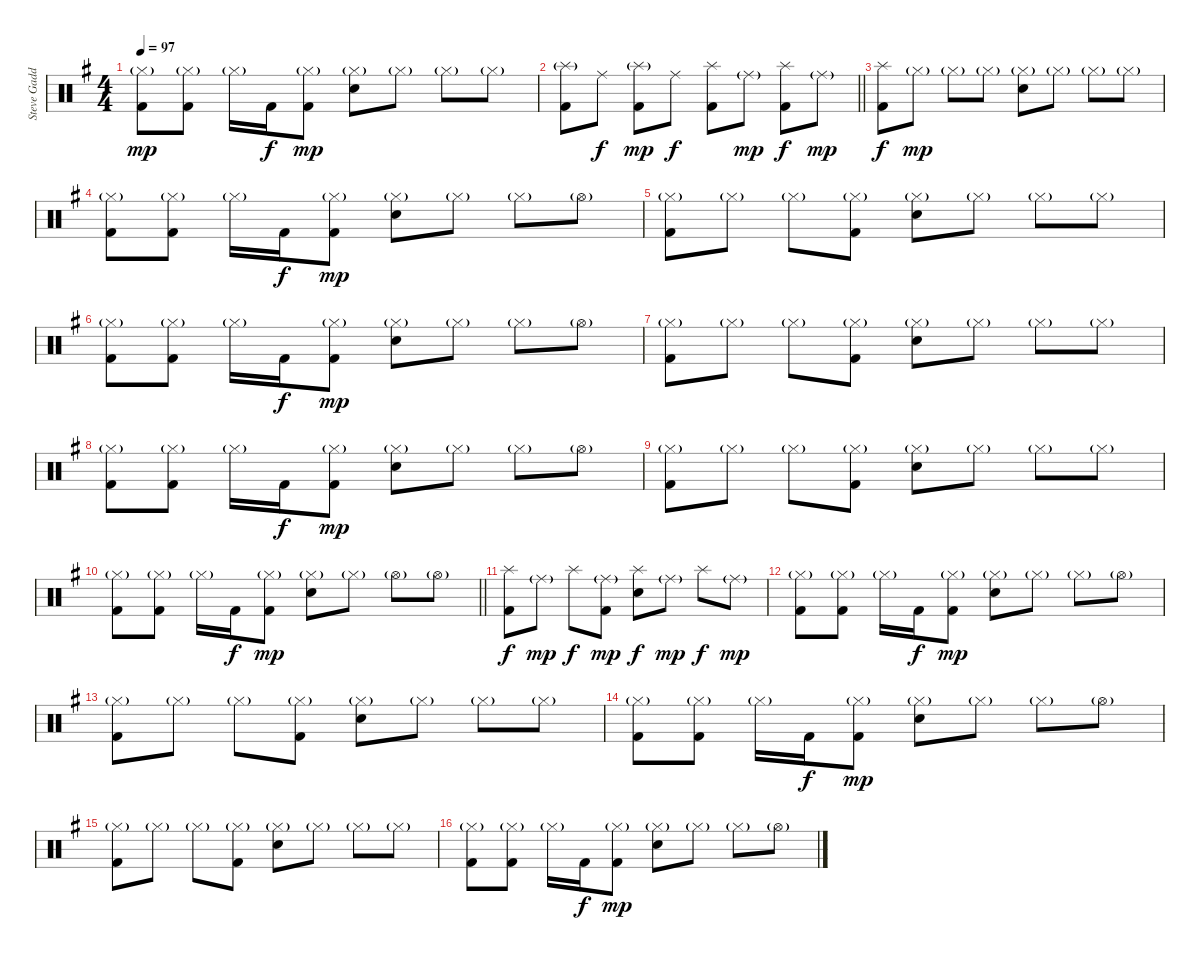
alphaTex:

\track ("Steve Gadd" "Steve Gadd") {instrument percussion}
\staff {score}
\articulation defaults
\ts (4 4)
\tempo 97
\clef neutral
\ks g
("Hi-Hat (closed)"{g} "Kick (hit) 2").8{dy mp} ("Hi-Hat (closed)"{g} "Kick (hit) 2").8 "Hi-Hat (closed)"{g}.16 "Kick (hit) 2".16{dy f} ("Hi-Hat (closed)"{g} "Kick (hit) 2").8{dy mp} ("Hi-Hat (closed)"{g} "Snare (hit) 2").8 "Hi-Hat (closed)"{g}.8 "Hi-Hat (closed)"{g}.8 "Hi-Hat (closed)"{g}.8 |
\barLineRight lightlight
("Splash (hit)"{g} "Kick (hit) 2").8 "Ride (middle)".8{dy f} ("Splash (hit)"{g} "Kick (hit) 2").8{dy mp} "Ride (middle)".8{dy f} ("Splash (hit)" "Kick (hit) 2").8 "Ride (middle)"{g}.8{dy mp} ("Splash (hit)" "Kick (hit) 2").8{dy f} "Ride (middle)"{g}.8{dy mp} |
("Splash (hit)" "Kick (hit) 2").8{dy f} "Hi-Hat (closed)"{g}.8{dy mp} "Hi-Hat (closed)"{g}.8 "Hi-Hat (closed)"{g}.8 ("Hi-Hat (closed)"{g} "Snare (hit) 2").8 "Hi-Hat (closed)"{g}.8 "Hi-Hat (closed)"{g}.8 "Hi-Hat (closed)"{g}.8 |
("Hi-Hat (closed)"{g} "Kick (hit) 2").8 ("Hi-Hat (closed)"{g} "Kick (hit) 2").8 "Hi-Hat (closed)"{g}.16 "Kick (hit) 2".16{dy f} ("Hi-Hat (closed)"{g} "Kick (hit) 2").8{dy mp} ("Hi-Hat (closed)"{g} "Snare (hit) 2").8 "Hi-Hat (closed)"{g}.8 "Hi-Hat (closed)"{g}.8 "Hi-Hat (open)"{g}.8 |
("Hi-Hat (closed)"{g} "Kick (hit) 2").8 "Hi-Hat (closed)"{g}.8 "Hi-Hat (closed)"{g}.8 ("Hi-Hat (closed)"{g} "Kick (hit) 2").8 ("Hi-Hat (closed)"{g} "Snare (hit) 2").8 "Hi-Hat (closed)"{g}.8 "Hi-Hat (closed)"{g}.8 "Hi-Hat (closed)"{g}.8 |
("Hi-Hat (closed)"{g} "Kick (hit) 2").8 ("Hi-Hat (closed)"{g} "Kick (hit) 2").8 "Hi-Hat (closed)"{g}.16 "Kick (hit) 2".16{dy f} ("Hi-Hat (closed)"{g} "Kick (hit) 2").8{dy mp} ("Hi-Hat (closed)"{g} "Snare (hit) 2").8 "Hi-Hat (closed)"{g}.8 "Hi-Hat (closed)"{g}.8 "Hi-Hat (open)"{g}.8 |
("Hi-Hat (closed)"{g} "Kick (hit) 2").8 "Hi-Hat (closed)"{g}.8 "Hi-Hat (closed)"{g}.8 ("Hi-Hat (closed)"{g} "Kick (hit) 2").8 ("Hi-Hat (closed)"{g} "Snare (hit) 2").8 "Hi-Hat (closed)"{g}.8 "Hi-Hat (closed)"{g}.8 "Hi-Hat (closed)"{g}.8 |
("Hi-Hat (closed)"{g} "Kick (hit) 2").8 ("Hi-Hat (closed)"{g} "Kick (hit) 2").8 "Hi-Hat (closed)"{g}.16 "Kick (hit) 2".16{dy f} ("Hi-Hat (closed)"{g} "Kick (hit) 2").8{dy mp} ("Hi-Hat (closed)"{g} "Snare (hit) 2").8 "Hi-Hat (closed)"{g}.8 "Hi-Hat (closed)"{g}.8 "Hi-Hat (open)"{g}.8 |
("Hi-Hat (closed)"{g} "Kick (hit) 2").8 "Hi-Hat (closed)"{g}.8 "Hi-Hat (closed)"{g}.8 ("Hi-Hat (closed)"{g} "Kick (hit) 2").8 ("Hi-Hat (closed)"{g} "Snare (hit) 2").8 "Hi-Hat (closed)"{g}.8 "Hi-Hat (closed)"{g}.8 "Hi-Hat (closed)"{g}.8 |
\barLineRight lightlight
("Hi-Hat (closed)"{g} "Kick (hit) 2").8 ("Hi-Hat (closed)"{g} "Kick (hit) 2").8 "Hi-Hat (closed)"{g}.16 "Kick (hit) 2".16{dy f} ("Hi-Hat (closed)"{g} "Kick (hit) 2").8{dy mp} ("Hi-Hat (closed)"{g} "Snare (hit) 2").8 "Hi-Hat (closed)"{g}.8 "Hi-Hat (open)"{g}.8 "Hi-Hat (open)"{g}.8 |
("Splash (hit)" "Kick (hit) 2").8{dy f} "Ride (middle)"{g}.8{dy mp} "Splash (hit)".8{dy f} ("Ride (middle)"{g} "Kick (hit) 2").8{dy mp} ("Splash (hit)" "Snare (hit) 2").8{dy f} "Ride (middle)"{g}.8{dy mp} "Splash (hit)".8{dy f} "Ride (middle)"{g}.8{dy mp} |
("Hi-Hat (closed)"{g} "Kick (hit) 2").8 ("Hi-Hat (closed)"{g} "Kick (hit) 2").8 "Hi-Hat (closed)"{g}.16 "Kick (hit) 2".16{dy f} ("Hi-Hat (closed)"{g} "Kick (hit) 2").8{dy mp} ("Hi-Hat (closed)"{g} "Snare (hit) 2").8 "Hi-Hat (closed)"{g}.8 "Hi-Hat (closed)"{g}.8 "Hi-Hat (open)"{g}.8 |
("Hi-Hat (closed)"{g} "Kick (hit) 2").8 "Hi-Hat (closed)"{g}.8 "Hi-Hat (closed)"{g}.8 ("Hi-Hat (closed)"{g} "Kick (hit) 2").8 ("Hi-Hat (closed)"{g} "Snare (hit) 2").8 "Hi-Hat (closed)"{g}.8 "Hi-Hat (closed)"{g}.8 "Hi-Hat (closed)"{g}.8 |
("Hi-Hat (closed)"{g} "Kick (hit) 2").8 ("Hi-Hat (closed)"{g} "Kick (hit) 2").8 "Hi-Hat (closed)"{g}.16 "Kick (hit) 2".16{dy f} ("Hi-Hat (closed)"{g} "Kick (hit) 2").8{dy mp} ("Hi-Hat (closed)"{g} "Snare (hit) 2").8 "Hi-Hat (closed)"{g}.8 "Hi-Hat (closed)"{g}.8 "Hi-Hat (open)"{g}.8 |
("Hi-Hat (closed)"{g} "Kick (hit) 2").8 "Hi-Hat (closed)"{g}.8 "Hi-Hat (closed)"{g}.8 ("Hi-Hat (closed)"{g} "Kick (hit) 2").8 ("Hi-Hat (closed)"{g} "Snare (hit) 2").8 "Hi-Hat (closed)"{g}.8 "Hi-Hat (closed)"{g}.8 "Hi-Hat (closed)"{g}.8 |
("Hi-Hat (closed)"{g} "Kick (hit) 2").8 ("Hi-Hat (closed)"{g} "Kick (hit) 2").8 "Hi-Hat (closed)"{g}.16 "Kick (hit) 2".16{dy f} ("Hi-Hat (closed)"{g} "Kick (hit) 2").8{dy mp} ("Hi-Hat (closed)"{g} "Snare (hit) 2").8 "Hi-Hat (closed)"{g}.8 "Hi-Hat (closed)"{g}.8 "Hi-Hat (open)"{g}.8
